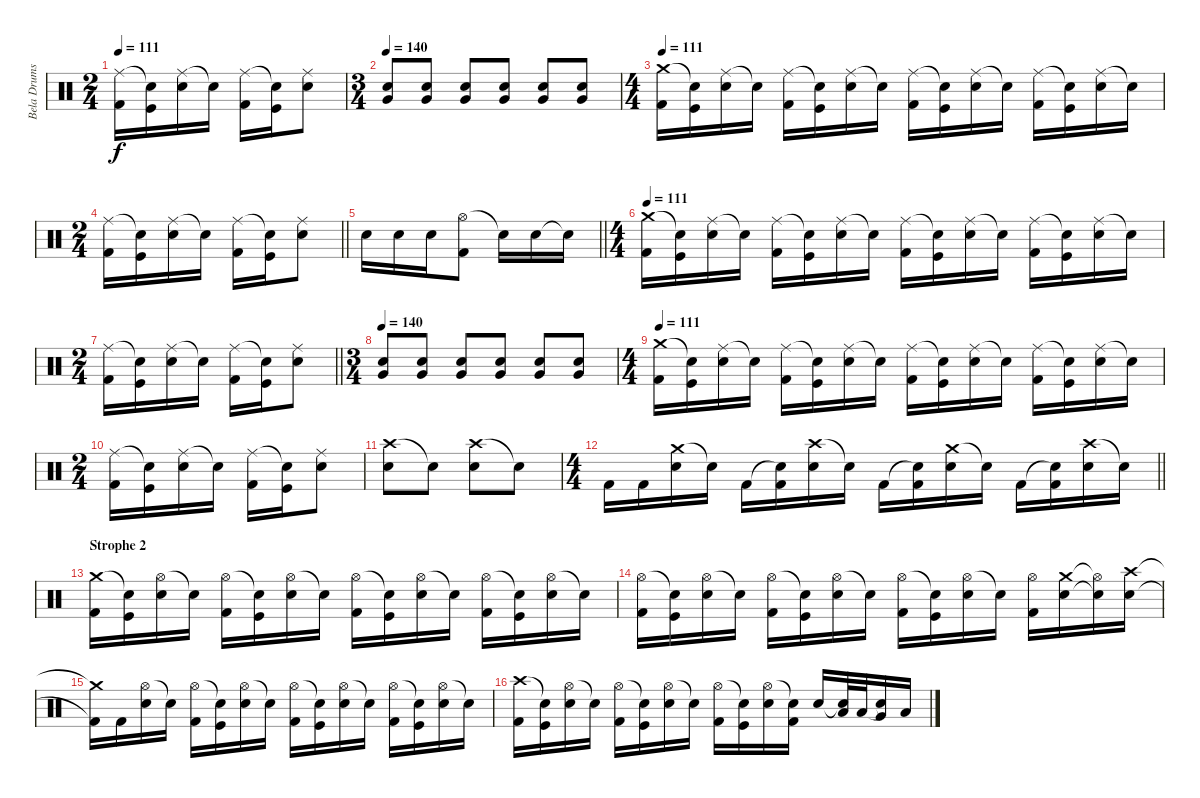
\track ("Bela Drums" "Bela Drums") {instrument percussion}
\staff {score}
\articulation defaults
\ts (2 4)
\tempo 111
\clef neutral
\ks c
("Ride (middle)" "Kick (hit) 2").16{dy f} ("Snare (hit)"{t} "Kick (hit)").16 ("Ride (middle)" "Snare (hit) 2").16 "Snare (hit)"{t}.16 ("Ride (middle)" "Kick (hit) 2").16 ("Snare (hit)"{t} "Kick (hit)").16 ("Ride (middle)" "Snare (hit) 2").8 |
\ts (3 4)
\tempo 140
("Very Low Tom (hit)" "Snare (hit) 2").8 ("Very Low Tom (hit)" "Snare (hit) 2").8 ("Very Low Tom (hit)" "Snare (hit) 2").8 ("Very Low Tom (hit)" "Snare (hit) 2").8 ("Very Low Tom (hit)" "Snare (hit) 2").8 ("Very Low Tom (hit)" "Snare (hit) 2").8 |
\ts (4 4)
\tempo 111
("Crash medium (hit)" "Kick (hit) 2").16 ("Snare (hit)"{t} "Kick (hit)").16 ("Ride (middle)" "Snare (hit) 2").16 "Snare (hit)"{t}.16 ("Ride (middle)" "Kick (hit) 2").16 ("Snare (hit)"{t} "Kick (hit)").16 ("Ride (middle)" "Snare (hit) 2").16 "Snare (hit)"{t}.16 ("Ride (middle)" "Kick (hit) 2").16 ("Snare (hit)"{t} "Kick (hit)").16 ("Ride (middle)" "Snare (hit) 2").16 "Snare (hit)"{t}.16 ("Ride (middle)" "Kick (hit) 2").16 ("Snare (hit)"{t} "Kick (hit)").16 ("Ride (middle)" "Snare (hit) 2").16 "Snare (hit)"{t}.16 |
\ts (2 4)
\barLineRight lightlight
("Ride (middle)" "Kick (hit) 2").16 ("Snare (hit)"{t} "Kick (hit)").16 ("Ride (middle)" "Snare (hit) 2").16 "Snare (hit)"{t}.16 ("Ride (middle)" "Kick (hit) 2").16 ("Snare (hit)"{t} "Kick (hit)").16 ("Ride (middle)" "Snare (hit) 2").8 |
\barLineRight lightlight "Snare (hit) 2".16 "Snare (hit) 2".16 "Snare (hit) 2".16
("Hi-Hat (open)" "Kick (hit) 2").8 "Snare (hit) 2"{t}.16 "Snare (hit) 2".16 "Snare (hit) 2"{t}.16 |
\ts (4 4)
\tempo 111
("Crash medium (hit)" "Kick (hit) 2").16 ("Snare (hit)"{t} "Kick (hit)").16 ("Ride (middle)" "Snare (hit) 2").16 "Snare (hit)"{t}.16 ("Ride (middle)" "Kick (hit) 2").16 ("Snare (hit)"{t} "Kick (hit)").16 ("Ride (middle)" "Snare (hit) 2").16 "Snare (hit)"{t}.16 ("Ride (middle)" "Kick (hit) 2").16 ("Snare (hit)"{t} "Kick (hit)").16 ("Ride (middle)" "Snare (hit) 2").16 "Snare (hit)"{t}.16 ("Ride (middle)" "Kick (hit) 2").16 ("Snare (hit)"{t} "Kick (hit)").16 ("Ride (middle)" "Snare (hit) 2").16 "Snare (hit)"{t}.16 |
\ts (2 4)
\barLineRight lightlight
("Ride (middle)" "Kick (hit) 2").16 ("Snare (hit)"{t} "Kick (hit)").16 ("Ride (middle)" "Snare (hit) 2").16 "Snare (hit)"{t}.16 ("Ride (middle)" "Kick (hit) 2").16 ("Snare (hit)"{t} "Kick (hit)").16 ("Ride (middle)" "Snare (hit) 2").8 |
\ts (3 4)
\tempo 140
("Very Low Tom (hit)" "Snare (hit) 2").8 ("Very Low Tom (hit)" "Snare (hit) 2").8 ("Very Low Tom (hit)" "Snare (hit) 2").8 ("Very Low Tom (hit)" "Snare (hit) 2").8 ("Very Low Tom (hit)" "Snare (hit) 2").8 ("Very Low Tom (hit)" "Snare (hit) 2").8 |
\ts (4 4)
\tempo 111
("Crash medium (hit)" "Kick (hit) 2").16 ("Snare (hit)"{t} "Kick (hit)").16 ("Ride (middle)" "Snare (hit) 2").16 "Snare (hit)"{t}.16 ("Ride (middle)" "Kick (hit) 2").16 ("Snare (hit)"{t} "Kick (hit)").16 ("Ride (middle)" "Snare (hit) 2").16 "Snare (hit)"{t}.16 ("Ride (middle)" "Kick (hit) 2").16 ("Snare (hit)"{t} "Kick (hit)").16 ("Ride (middle)" "Snare (hit) 2").16 "Snare (hit)"{t}.16 ("Ride (middle)" "Kick (hit) 2").16 ("Snare (hit)"{t} "Kick (hit)").16 ("Ride (middle)" "Snare (hit) 2").16 "Snare (hit)"{t}.16 |
\ts (2 4)
("Ride (middle)" "Kick (hit) 2").16 ("Snare (hit)"{t} "Kick (hit)").16 ("Ride (middle)" "Snare (hit) 2").16 "Snare (hit)"{t}.16 ("Ride (middle)" "Kick (hit) 2").16 ("Snare (hit)"{t} "Kick (hit)").16 ("Ride (middle)" "Snare (hit) 2").8 |
("Crash high (hit)" "Snare (hit) 2").8 "Snare (hit)"{t}.8 ("Crash high (hit)" "Snare (hit) 2").8 "Snare (hit)"{t}.8 |
\ts (4 4)
\barLineRight lightlight "Kick (hit) 2".16 "Kick (hit) 2".16
("Crash medium (hit)" "Snare (hit) 2").16 "Snare (hit)"{t}.16 "Kick (hit) 2".16 ("Snare (hit)"{t} "Kick (hit) 2").16 ("Crash high (hit)" "Snare (hit) 2").16 "Snare (hit)"{t}.16 "Kick (hit) 2".16 ("Snare (hit)"{t} "Kick (hit) 2").16 ("Crash medium (hit)" "Snare (hit) 2").16 "Snare (hit)"{t}.16 "Kick (hit) 2".16 ("Snare (hit)"{t} "Kick (hit) 2").16 ("Crash high (hit)" "Snare (hit) 2").16 "Snare (hit)"{t}.16 |
\section ("" "Strophe 2")
("Crash medium (hit)" "Kick (hit) 2").16 ("Snare (hit)"{t} "Kick (hit)").16 ("Hi-Hat (open)" "Snare (hit) 2").16 "Snare (hit)"{t}.16 ("Hi-Hat (open)" "Kick (hit) 2").16 ("Snare (hit)"{t} "Kick (hit)").16 ("Hi-Hat (open)" "Snare (hit) 2").16 "Snare (hit)"{t}.16 ("Hi-Hat (open)" "Kick (hit) 2").16 ("Snare (hit)"{t} "Kick (hit)").16 ("Hi-Hat (open)" "Snare (hit) 2").16 "Snare (hit)"{t}.16 ("Hi-Hat (open)" "Kick (hit) 2").16 ("Snare (hit)"{t} "Kick (hit)").16 ("Hi-Hat (open)" "Snare (hit) 2").16 "Snare (hit)"{t}.16 |
("Hi-Hat (open)" "Kick (hit) 2").16 ("Snare (hit)"{t} "Kick (hit)").16 ("Hi-Hat (open)" "Snare (hit) 2").16 "Snare (hit)"{t}.16 ("Hi-Hat (open)" "Kick (hit) 2").16 ("Snare (hit)"{t} "Kick (hit)").16 ("Hi-Hat (open)" "Snare (hit) 2").16 "Snare (hit)"{t}.16 ("Hi-Hat (open)" "Kick (hit) 2").16 ("Snare (hit)"{t} "Kick (hit)").16 ("Hi-Hat (open)" "Snare (hit) 2").16 "Snare (hit)"{t}.16 ("Hi-Hat (open)" "Kick (hit) 2").16 ("Crash medium (hit)" "Snare (hit) 2").16 ("Hi-Hat (open)"{t} "Snare (hit) 2"{t}).16 ("Crash high (hit)" "Snare (hit) 2").16 |
("Crash medium (hit)"{t} "Kick (hit) 2"{t}).16 "Kick (hit) 2".16 ("Hi-Hat (open)" "Snare (hit) 2").16 "Snare (hit)"{t}.16 ("Hi-Hat (open)" "Kick (hit) 2").16 ("Snare (hit)"{t} "Kick (hit)").16 ("Hi-Hat (open)" "Snare (hit) 2").16 "Snare (hit)"{t}.16 ("Hi-Hat (open)" "Kick (hit) 2").16 ("Snare (hit)"{t} "Kick (hit)").16 ("Hi-Hat (open)" "Snare (hit) 2").16 "Snare (hit)"{t}.16 ("Hi-Hat (open)" "Kick (hit) 2").16 ("Snare (hit)"{t} "Kick (hit)").16 ("Hi-Hat (open)" "Snare (hit) 2").16 "Snare (hit)"{t}.16 |
("Crash high (hit)" "Kick (hit) 2").16 ("Snare (hit)"{t} "Kick (hit)").16 ("Hi-Hat (open)" "Snare (hit) 2").16 "Snare (hit)"{t}.16 ("Hi-Hat (open)" "Kick (hit) 2").16 ("Snare (hit)"{t} "Kick (hit)").16 ("Hi-Hat (open)" "Snare (hit) 2").16 "Snare (hit)"{t}.16 ("Hi-Hat (open)" "Kick (hit) 2").16 ("Snare (hit)"{t} "Kick (hit)").16 ("Hi-Hat (open)" "Snare (hit) 2").16 ("Snare (hit)"{t} "Kick (hit) 2").16 "Snare (hit) 2".16 ("Snare (hit)"{t} "Low Tom (hit)").32 "Low Tom (hit)".32 ("Snare (hit)"{t} "Very Low Tom (hit)").16 "Low Floor Tom (hit)".16
